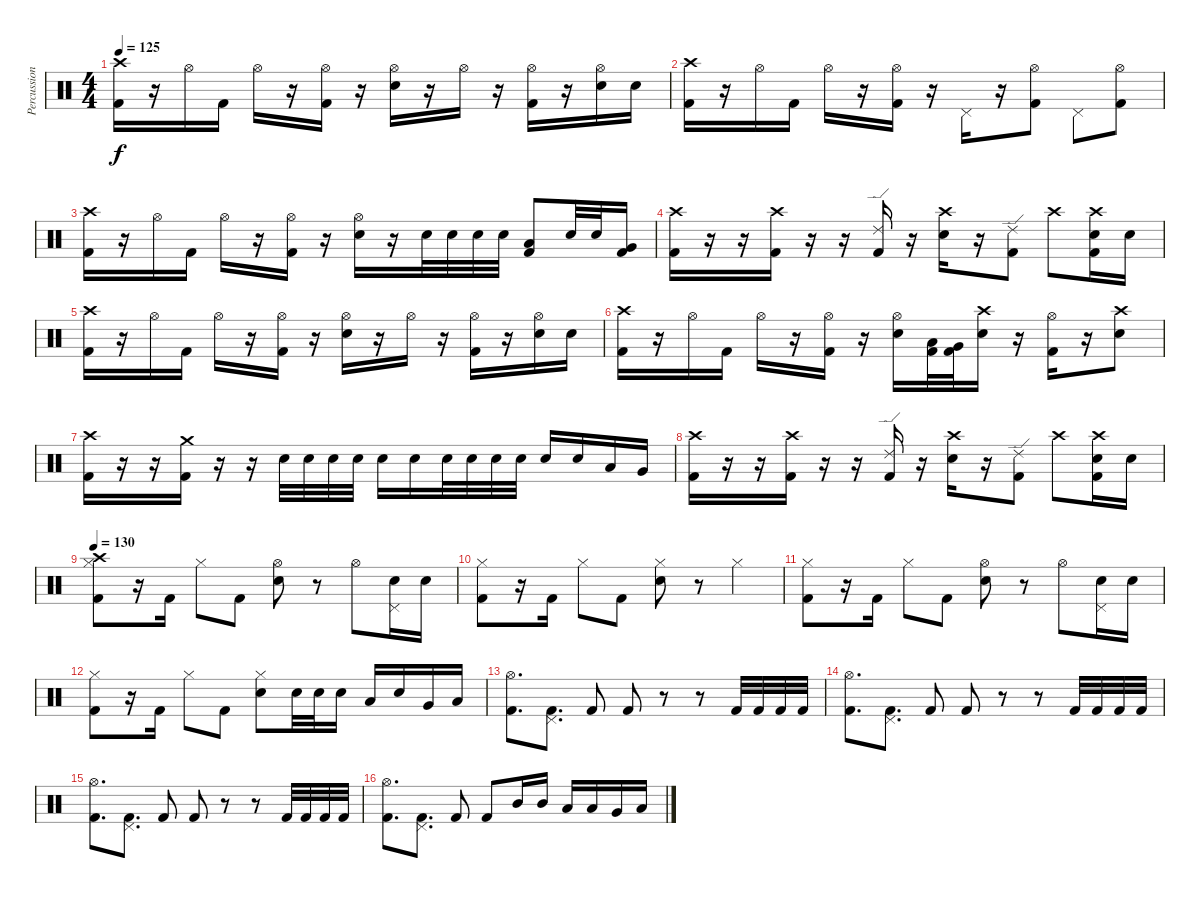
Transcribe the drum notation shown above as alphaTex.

\track ("Percussion" "Percussion") {instrument percussion}
\staff {score}
\articulation defaults
\ts (4 4)
\tempo 125
\clef neutral
\ks c
("Crash high (hit)" "Kick (hit) 2").16{dy f} r.16 "Hi-Hat (open)".16 "Kick (hit) 2".16 "Hi-Hat (open)".16 r.16 ("Hi-Hat (open)" "Kick (hit) 2").16 r.16 ("Hi-Hat (open)" "Electric Snare (hit)").16 r.16 "Hi-Hat (open)".16 r.16 ("Hi-Hat (open)" "Kick (hit) 2").16 r.16 ("Hi-Hat (open)" "Electric Snare (hit)").16 "Electric Snare (hit)".16 |
("Crash high (hit)" "Kick (hit) 2").16 r.16 "Hi-Hat (open)".16 "Kick (hit) 2".16 "Hi-Hat (open)".16 r.16 ("Hi-Hat (open)" "Kick (hit) 2").16 r.16 "Pedal Hi-Hat (hit)".16 r.16 ("Hi-Hat (open)" "Kick (hit) 2").8 "Pedal Hi-Hat (hit)".8 ("Hi-Hat (open)" "Kick (hit) 2").8 |
("Crash high (hit)" "Kick (hit) 2").16 r.16 "Hi-Hat (open)".16 "Kick (hit) 2".16 "Hi-Hat (open)".16 r.16 ("Hi-Hat (open)" "Kick (hit) 2").16 r.16 ("Hi-Hat (open)" "Electric Snare (hit)").16 r.16 "Electric Snare (hit)".32 "Electric Snare (hit)".32 "Electric Snare (hit)".32 "Electric Snare (hit)".32 ("Low Tom (hit)" "Kick (hit) 2").8 "Electric Snare (hit)".32 "Electric Snare (hit)".32 ("Very Low Tom (hit)" "Kick (hit) 2").16 |
("Crash high (hit)" "Kick (hit) 2").16 r.16 r.16 ("Crash high (hit)" "Kick (hit) 2").16 r.16 r.16 ("Ride (edge) 2" "Kick (hit) 2").16 r.16 ("Crash high (hit)" "Electric Snare (hit)").16 r.16 ("Ride (edge) 2" "Kick (hit) 2").8 "Crash high (hit)".8 ("Crash high (hit)" "Electric Snare (hit)" "Kick (hit) 2").16 "Electric Snare (hit)".16 |
("Crash high (hit)" "Kick (hit) 2").16 r.16 "Hi-Hat (open)".16 "Kick (hit) 2".16 "Hi-Hat (open)".16 r.16 ("Hi-Hat (open)" "Kick (hit) 2").16 r.16 ("Hi-Hat (open)" "Electric Snare (hit)").16 r.16 "Hi-Hat (open)".16 r.16 ("Hi-Hat (open)" "Kick (hit) 2").16 r.16 ("Hi-Hat (open)" "Electric Snare (hit)").16 "Electric Snare (hit)".16 |
("Crash high (hit)" "Kick (hit) 2").16 r.16 "Hi-Hat (open)".16 "Kick (hit) 2".16 "Hi-Hat (open)".16 r.16 ("Hi-Hat (open)" "Kick (hit) 2").16 r.16 ("Hi-Hat (open)" "Electric Snare (hit)").16 ("Low Tom (hit)" "Kick (hit) 2").32 ("Very Low Tom (hit)" "Kick (hit) 2").32 ("Crash high (hit)" "Electric Snare (hit)").16 r.16 ("Hi-Hat (open)" "Kick (hit) 2").16 r.16 ("Crash high (hit)" "Electric Snare (hit)").8 |
("Crash high (hit)" "Kick (hit) 2").16 r.16 r.16 ("Crash medium (hit)" "Kick (hit) 2").16 r.16 r.16 "Electric Snare (hit)".32 "Electric Snare (hit)".32 "Electric Snare (hit)".32 "Electric Snare (hit)".32 "Electric Snare (hit)".16 "Electric Snare (hit)".16 "Electric Snare (hit)".32 "Electric Snare (hit)".32 "Electric Snare (hit)".32 "Electric Snare (hit)".32 "Electric Snare (hit)".16 "Electric Snare (hit)".16 "Low Tom (hit)".16 "Very Low Tom (hit)".16 |
("Crash high (hit)" "Kick (hit) 2").16 r.16 r.16 ("Crash high (hit)" "Kick (hit) 2").16 r.16 r.16 ("Ride (edge) 2" "Kick (hit) 2").16 r.16 ("Crash high (hit)" "Electric Snare (hit)").16 r.16 ("Ride (edge) 2" "Kick (hit) 2").8 "Crash high (hit)".8 ("Crash high (hit)" "Electric Snare (hit)" "Kick (hit) 2").16 "Electric Snare (hit)".16 |
\tempo 130
("Crash high (hit)" "Hi-Hat (closed)" "Kick (hit) 2").8 r.16 "Kick (hit) 2".16 "Hi-Hat (closed)".8 "Kick (hit) 2".8 ("Hi-Hat (open)" "Electric Snare (hit)").8 r.8 "Hi-Hat (open)".8 ("Pedal Hi-Hat (hit)" "Electric Snare (hit)").16 "Electric Snare (hit)".16 |
("Hi-Hat (closed)" "Kick (hit) 2").8 r.16 "Kick (hit) 2".16 "Hi-Hat (closed)".8 "Kick (hit) 2".8 ("Hi-Hat (closed)" "Electric Snare (hit)").8 r.8 "Hi-Hat (closed)".4 |
("Hi-Hat (closed)" "Kick (hit) 2").8 r.16 "Kick (hit) 2".16 "Hi-Hat (closed)".8 "Kick (hit) 2".8 ("Hi-Hat (open)" "Electric Snare (hit)").8 r.8 "Hi-Hat (open)".8 ("Pedal Hi-Hat (hit)" "Electric Snare (hit)").16 "Electric Snare (hit)".16 |
("Hi-Hat (closed)" "Kick (hit) 2").8 r.16 "Kick (hit) 2".16 "Hi-Hat (closed)".8 "Kick (hit) 2".8 ("Hi-Hat (closed)" "Electric Snare (hit)").8 "Electric Snare (hit)".32 "Electric Snare (hit)".32 "Electric Snare (hit)".16 "Low Tom (hit)".16 "Electric Snare (hit)".16 "Very Low Tom (hit)".16 "Low Floor Tom (hit)".16 |
("Hi-Hat (open)" "Kick (hit) 2").8{d} ("Pedal Hi-Hat (hit)" "Kick (hit) 2").8{d} "Kick (hit) 2".8 "Kick (hit) 2".8 r.8 r.8 "Kick (hit) 2".32 "Kick (hit) 2".32 "Kick (hit) 2".32 "Kick (hit) 2".32 |
("Hi-Hat (open)" "Kick (hit) 2").8{d} ("Pedal Hi-Hat (hit)" "Kick (hit) 2").8{d} "Kick (hit) 2".8 "Kick (hit) 2".8 r.8 r.8 "Kick (hit) 2".32 "Kick (hit) 2".32 "Kick (hit) 2".32 "Kick (hit) 2".32 |
("Hi-Hat (open)" "Kick (hit) 2").8{d} ("Pedal Hi-Hat (hit)" "Kick (hit) 2").8{d} "Kick (hit) 2".8 "Kick (hit) 2".8 r.8 r.8 "Kick (hit) 2".32 "Kick (hit) 2".32 "Kick (hit) 2".32 "Kick (hit) 2".32 |
("Hi-Hat (open)" "Kick (hit) 2").8{d} ("Pedal Hi-Hat (hit)" "Kick (hit) 2").8{d} "Kick (hit) 2".8 "Kick (hit) 2".8 "Mid Tom (hit)".16 "Mid Tom (hit)".16 "Low Tom (hit)".16 "Low Tom (hit)".16 "Very Low Tom (hit)".16 "Low Floor Tom (hit)".16
